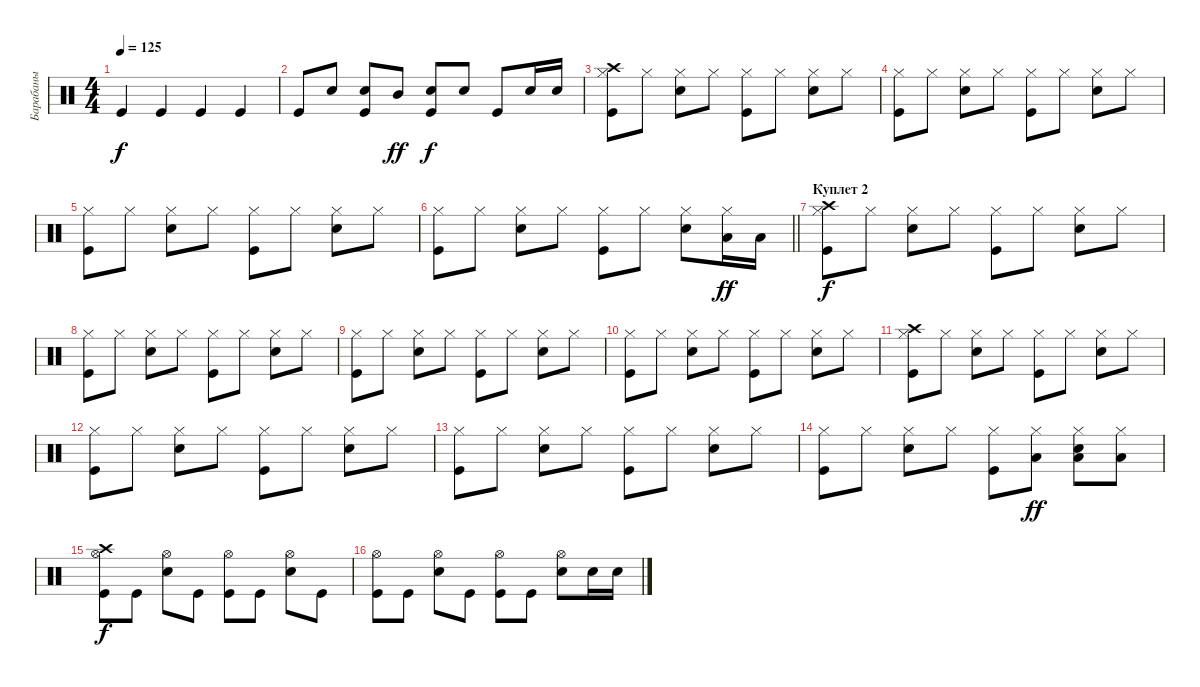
\track ("Барабаны" "Барабаны") {instrument percussion}
\staff {score}
\articulation defaults
\ts (4 4)
\tempo 125
\clef neutral
\ks c "Kick (hit)".4{dy f} "Kick (hit)".4 "Kick (hit)".4 "Kick (hit)".4
|
"Kick (hit)".8 "Snare (hit) 2".8 ("Kick (hit)" "Snare (hit) 2").8 "Mid Tom (hit)".8{dy ff} ("Kick (hit)" "Snare (hit) 2").8{dy f} "Snare (hit) 2".8 "Kick (hit)".8 "Snare (hit) 2".16 "Snare (hit) 2".16 |
("Kick (hit)" "Hi-Hat (closed)" "Crash high (hit)").8 "Hi-Hat (closed)".8 ("Snare (hit) 2" "Hi-Hat (closed)").8 "Hi-Hat (closed)".8 ("Kick (hit)" "Hi-Hat (closed)").8 "Hi-Hat (closed)".8 ("Snare (hit) 2" "Hi-Hat (closed)").8 "Hi-Hat (closed)".8 |
("Kick (hit)" "Hi-Hat (closed)").8 "Hi-Hat (closed)".8 ("Snare (hit) 2" "Hi-Hat (closed)").8 "Hi-Hat (closed)".8 ("Kick (hit)" "Hi-Hat (closed)").8 "Hi-Hat (closed)".8 ("Snare (hit) 2" "Hi-Hat (closed)").8 "Hi-Hat (closed)".8 |
("Kick (hit)" "Hi-Hat (closed)").8 "Hi-Hat (closed)".8 ("Snare (hit) 2" "Hi-Hat (closed)").8 "Hi-Hat (closed)".8 ("Kick (hit)" "Hi-Hat (closed)").8 "Hi-Hat (closed)".8 ("Snare (hit) 2" "Hi-Hat (closed)").8 "Hi-Hat (closed)".8 |
\barLineRight lightlight
("Kick (hit)" "Hi-Hat (closed)").8 "Hi-Hat (closed)".8 ("Snare (hit) 2" "Hi-Hat (closed)").8 "Hi-Hat (closed)".8 ("Kick (hit)" "Hi-Hat (closed)").8 "Hi-Hat (closed)".8 ("Snare (hit) 2" "Hi-Hat (closed)").8 ("Hi-Hat (closed)" "Low Tom (hit)").16{dy ff} "Low Tom (hit)".16 |
\section ("" "Куплет 2")
("Kick (hit)" "Hi-Hat (closed)" "Crash high (hit)").8{dy f} "Hi-Hat (closed)".8 ("Snare (hit) 2" "Hi-Hat (closed)").8 "Hi-Hat (closed)".8 ("Kick (hit)" "Hi-Hat (closed)").8 "Hi-Hat (closed)".8 ("Snare (hit) 2" "Hi-Hat (closed)").8 "Hi-Hat (closed)".8 |
("Kick (hit)" "Hi-Hat (closed)").8 "Hi-Hat (closed)".8 ("Snare (hit) 2" "Hi-Hat (closed)").8 "Hi-Hat (closed)".8 ("Kick (hit)" "Hi-Hat (closed)").8 "Hi-Hat (closed)".8 ("Snare (hit) 2" "Hi-Hat (closed)").8 "Hi-Hat (closed)".8 |
("Kick (hit)" "Hi-Hat (closed)").8 "Hi-Hat (closed)".8 ("Snare (hit) 2" "Hi-Hat (closed)").8 "Hi-Hat (closed)".8 ("Kick (hit)" "Hi-Hat (closed)").8 "Hi-Hat (closed)".8 ("Snare (hit) 2" "Hi-Hat (closed)").8 "Hi-Hat (closed)".8 |
("Kick (hit)" "Hi-Hat (closed)").8 "Hi-Hat (closed)".8 ("Snare (hit) 2" "Hi-Hat (closed)").8 "Hi-Hat (closed)".8 ("Kick (hit)" "Hi-Hat (closed)").8 "Hi-Hat (closed)".8 ("Snare (hit) 2" "Hi-Hat (closed)").8 "Hi-Hat (closed)".8 |
("Kick (hit)" "Hi-Hat (closed)" "Crash high (hit)").8 "Hi-Hat (closed)".8 ("Snare (hit) 2" "Hi-Hat (closed)").8 "Hi-Hat (closed)".8 ("Kick (hit)" "Hi-Hat (closed)").8 "Hi-Hat (closed)".8 ("Snare (hit) 2" "Hi-Hat (closed)").8 "Hi-Hat (closed)".8 |
("Kick (hit)" "Hi-Hat (closed)").8 "Hi-Hat (closed)".8 ("Snare (hit) 2" "Hi-Hat (closed)").8 "Hi-Hat (closed)".8 ("Kick (hit)" "Hi-Hat (closed)").8 "Hi-Hat (closed)".8 ("Snare (hit) 2" "Hi-Hat (closed)").8 "Hi-Hat (closed)".8 |
("Kick (hit)" "Hi-Hat (closed)").8 "Hi-Hat (closed)".8 ("Snare (hit) 2" "Hi-Hat (closed)").8 "Hi-Hat (closed)".8 ("Kick (hit)" "Hi-Hat (closed)").8 "Hi-Hat (closed)".8 ("Snare (hit) 2" "Hi-Hat (closed)").8 "Hi-Hat (closed)".8 |
("Kick (hit)" "Hi-Hat (closed)").8 "Hi-Hat (closed)".8 ("Snare (hit) 2" "Hi-Hat (closed)").8 "Hi-Hat (closed)".8 ("Kick (hit)" "Hi-Hat (closed)").8 ("Hi-Hat (closed)" "Low Tom (hit)").8{dy ff} ("Snare (hit) 2" "Hi-Hat (closed)" "Low Tom (hit)").8 ("Hi-Hat (closed)" "Low Tom (hit)").8 |
("Kick (hit)" "Hi-Hat (open)" "Crash high (hit)").8{dy f} "Kick (hit)".8 ("Snare (hit) 2" "Hi-Hat (open)").8 "Kick (hit)".8 ("Kick (hit)" "Hi-Hat (open)").8 "Kick (hit)".8 ("Snare (hit) 2" "Hi-Hat (open)").8 "Kick (hit)".8 |
("Kick (hit)" "Hi-Hat (open)").8 "Kick (hit)".8 ("Snare (hit) 2" "Hi-Hat (open)").8 "Kick (hit)".8 ("Kick (hit)" "Hi-Hat (open)").8 "Kick (hit)".8 ("Snare (hit) 2" "Hi-Hat (open)").8 "Snare (hit) 2".16 "Snare (hit) 2".16
